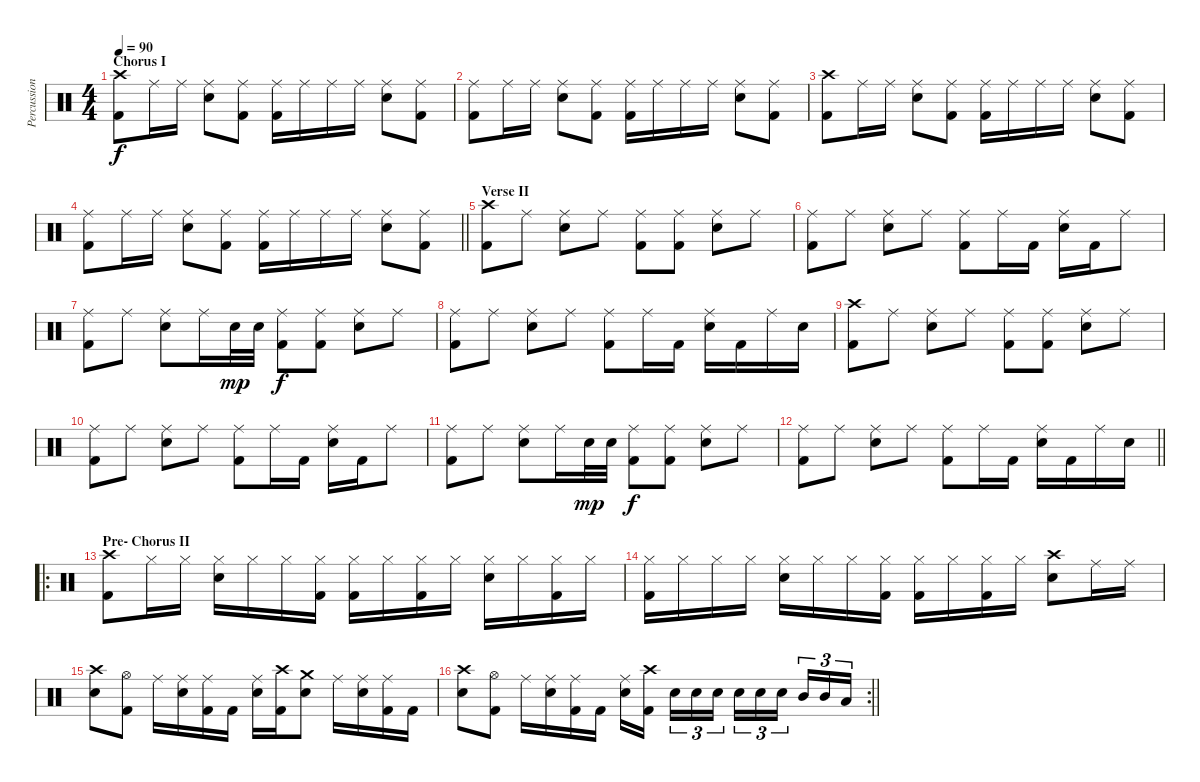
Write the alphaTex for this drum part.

\track ("Percussions" "Percussion") {instrument percussion}
\staff {score}
\articulation defaults
\ts (4 4)
\section ("" "Chorus I")
\tempo 90
\clef neutral
\ks c
("Crash high (hit)" "Kick (hit) 2").8{dy f} "Ride (middle)".16 "Ride (middle)".16 ("Ride (middle)" "Electric Snare (hit)").8 ("Ride (middle)" "Kick (hit) 2").8 ("Ride (middle)" "Kick (hit) 2").16 "Ride (middle)".16 "Ride (middle)".16 "Ride (middle)".16 ("Ride (middle)" "Electric Snare (hit)").8 ("Ride (middle)" "Kick (hit) 2").8 |
("Ride (middle)" "Kick (hit) 2").8 "Ride (middle)".16 "Ride (middle)".16 ("Ride (middle)" "Electric Snare (hit)").8 ("Ride (middle)" "Kick (hit) 2").8 ("Ride (middle)" "Kick (hit) 2").16 "Ride (middle)".16 "Ride (middle)".16 "Ride (middle)".16 ("Ride (middle)" "Electric Snare (hit)").8 ("Ride (middle)" "Kick (hit) 2").8 |
("Crash high (hit)" "Kick (hit) 2").8 "Ride (middle)".16 "Ride (middle)".16 ("Ride (middle)" "Electric Snare (hit)").8 ("Ride (middle)" "Kick (hit) 2").8 ("Ride (middle)" "Kick (hit) 2").16 "Ride (middle)".16 "Ride (middle)".16 "Ride (middle)".16 ("Ride (middle)" "Electric Snare (hit)").8 ("Ride (middle)" "Kick (hit) 2").8 |
\barLineRight lightlight
("Ride (middle)" "Kick (hit) 2").8 "Ride (middle)".16 "Ride (middle)".16 ("Ride (middle)" "Electric Snare (hit)").8 ("Ride (middle)" "Kick (hit) 2").8 ("Ride (middle)" "Kick (hit) 2").16 "Ride (middle)".16 "Ride (middle)".16 "Ride (middle)".16 ("Ride (middle)" "Electric Snare (hit)").8 ("Ride (middle)" "Kick (hit) 2").8 |
\section ("" "Verse II")
("Crash high (hit)" "Kick (hit) 2").8 "Ride (middle)".8 ("Ride (middle)" "Electric Snare (hit)").8 "Ride (middle)".8 ("Ride (middle)" "Kick (hit) 2").8 ("Ride (middle)" "Kick (hit) 2").8 ("Ride (middle)" "Electric Snare (hit)").8 "Ride (middle)".8 |
("Ride (middle)" "Kick (hit) 2").8 "Ride (middle)".8 ("Ride (middle)" "Electric Snare (hit)").8 "Ride (middle)".8 ("Ride (middle)" "Kick (hit) 2").8 "Ride (middle)".16 "Kick (hit) 2".16 ("Ride (middle)" "Electric Snare (hit)").16 "Kick (hit) 2".16 "Ride (middle)".8 |
("Ride (middle)" "Kick (hit) 2").8 "Ride (middle)".8 ("Ride (middle)" "Electric Snare (hit)").8 "Ride (middle)".16 "Electric Snare (hit)".32{dy mp} "Electric Snare (hit)".32 ("Ride (middle)" "Kick (hit) 2").8{dy f} ("Ride (middle)" "Kick (hit) 2").8 ("Ride (middle)" "Electric Snare (hit)").8 "Ride (middle)".8 |
("Ride (middle)" "Kick (hit) 2").8 "Ride (middle)".8 ("Ride (middle)" "Electric Snare (hit)").8 "Ride (middle)".8 ("Ride (middle)" "Kick (hit) 2").8 "Ride (middle)".16 "Kick (hit) 2".16 ("Ride (middle)" "Electric Snare (hit)").16 "Kick (hit) 2".16 "Ride (middle)".16 "Electric Snare (hit)".16 |
("Crash high (hit)" "Kick (hit) 2").8 "Ride (middle)".8 ("Ride (middle)" "Electric Snare (hit)").8 "Ride (middle)".8 ("Ride (middle)" "Kick (hit) 2").8 ("Ride (middle)" "Kick (hit) 2").8 ("Ride (middle)" "Electric Snare (hit)").8 "Ride (middle)".8 |
("Ride (middle)" "Kick (hit) 2").8 "Ride (middle)".8 ("Ride (middle)" "Electric Snare (hit)").8 "Ride (middle)".8 ("Ride (middle)" "Kick (hit) 2").8 "Ride (middle)".16 "Kick (hit) 2".16 ("Ride (middle)" "Electric Snare (hit)").16 "Kick (hit) 2".16 "Ride (middle)".8 |
("Ride (middle)" "Kick (hit) 2").8 "Ride (middle)".8 ("Ride (middle)" "Electric Snare (hit)").8 "Ride (middle)".16 "Electric Snare (hit)".32{dy mp} "Electric Snare (hit)".32 ("Ride (middle)" "Kick (hit) 2").8{dy f} ("Ride (middle)" "Kick (hit) 2").8 ("Ride (middle)" "Electric Snare (hit)").8 "Ride (middle)".8 |
\barLineRight lightlight
("Ride (middle)" "Kick (hit) 2").8 "Ride (middle)".8 ("Ride (middle)" "Electric Snare (hit)").8 "Ride (middle)".8 ("Ride (middle)" "Kick (hit) 2").8 "Ride (middle)".16 "Kick (hit) 2".16 ("Ride (middle)" "Electric Snare (hit)").16 "Kick (hit) 2".16 "Ride (middle)".16 "Electric Snare (hit)".16 |
\ro
\section ("" "Pre- Chorus II")
("Crash high (hit)" "Kick (hit) 2").8 "Hi-Hat (closed)".16 "Hi-Hat (closed)".16 ("Hi-Hat (closed)" "Electric Snare (hit)").16 "Hi-Hat (closed)".16 "Hi-Hat (closed)".16 ("Hi-Hat (closed)" "Kick (hit) 2").16 ("Hi-Hat (closed)" "Kick (hit) 2").16 "Hi-Hat (closed)".16 ("Hi-Hat (closed)" "Kick (hit) 2").16 "Hi-Hat (closed)".16 ("Hi-Hat (closed)" "Electric Snare (hit)").16 "Hi-Hat (closed)".16 ("Hi-Hat (closed)" "Kick (hit) 2").16 "Hi-Hat (closed)".16 |
("Hi-Hat (closed)" "Kick (hit) 2").16 "Hi-Hat (closed)".16 "Hi-Hat (closed)".16 "Hi-Hat (closed)".16 ("Hi-Hat (closed)" "Electric Snare (hit)").16 "Hi-Hat (closed)".16 "Hi-Hat (closed)".16 ("Hi-Hat (closed)" "Kick (hit) 2").16 ("Hi-Hat (closed)" "Kick (hit) 2").16 "Hi-Hat (closed)".16 ("Hi-Hat (closed)" "Kick (hit) 2").16 "Hi-Hat (closed)".16 ("Crash high (hit)" "Electric Snare (hit)").8 "Ride (middle)".16 "Ride (middle)".16 |
("Crash high (hit)" "Electric Snare (hit)").8 ("Hi-Hat (open)" "Kick (hit) 2").8 "Ride (middle)".16 ("Ride (middle)" "Electric Snare (hit)").16 ("Ride (middle)" "Kick (hit) 2").16 "Kick (hit) 2".16 ("Ride (middle)" "Electric Snare (hit)").16 ("Crash high (hit)" "Kick (hit) 2").16 ("Crash medium (hit)" "Electric Snare (hit)").8 "Ride (middle)".16 ("Ride (middle)" "Electric Snare (hit)").16 ("Ride (middle)" "Kick (hit) 2").16 "Kick (hit) 2".16 |
\rc 2
\barLineRight lightlight
("Crash high (hit)" "Electric Snare (hit)").8 ("Hi-Hat (open)" "Kick (hit) 2").8 "Ride (middle)".16 ("Ride (middle)" "Electric Snare (hit)").16 ("Ride (middle)" "Kick (hit) 2").16 "Kick (hit) 2".16 ("Ride (middle)" "Electric Snare (hit)").16 ("Crash high (hit)" "Kick (hit) 2").16{beam splitsecondary} "Electric Snare (hit)".16{tu (3 2)} "Electric Snare (hit)".16{tu (3 2)} "Electric Snare (hit)".16{tu (3 2)} "Electric Snare (hit)".16{tu (3 2)} "Electric Snare (hit)".16{tu (3 2)} "Electric Snare (hit)".16{tu (3 2) beam splitsecondary} "Mid Tom (hit)".16{tu (3 2)} "Mid Tom (hit)".16{tu (3 2)} "Low Tom (hit)".16{tu (3 2)}
